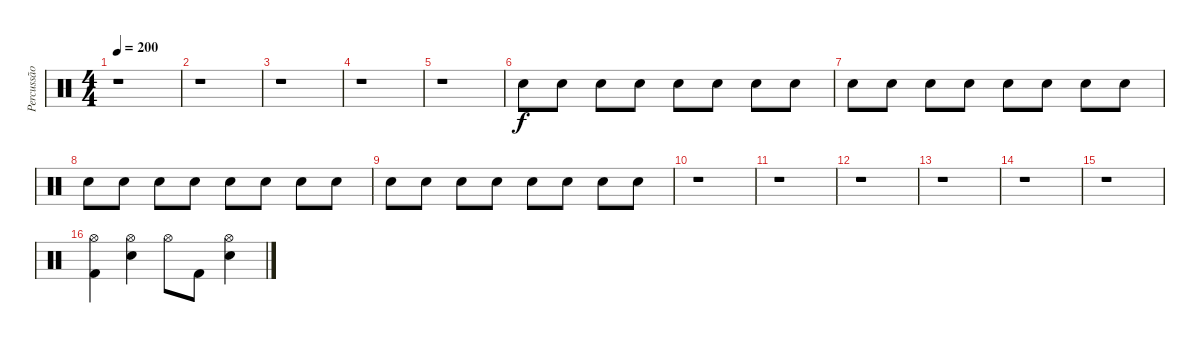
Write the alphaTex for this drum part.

\track ("Percussão" "Percussão") {instrument percussion}
\staff {score}
\articulation defaults
\ts (4 4)
\tempo 200
\clef neutral
\ks c
r.1{dy f} |
r.1 |
r.1 |
r.1 |
r.1 |
"Electric Snare (hit)".8 "Electric Snare (hit)".8 "Electric Snare (hit)".8 "Electric Snare (hit)".8 "Electric Snare (hit)".8 "Electric Snare (hit)".8 "Electric Snare (hit)".8 "Electric Snare (hit)".8 |
"Electric Snare (hit)".8 "Electric Snare (hit)".8 "Electric Snare (hit)".8 "Electric Snare (hit)".8 "Electric Snare (hit)".8 "Electric Snare (hit)".8 "Electric Snare (hit)".8 "Electric Snare (hit)".8 |
"Electric Snare (hit)".8 "Electric Snare (hit)".8 "Electric Snare (hit)".8 "Electric Snare (hit)".8 "Electric Snare (hit)".8 "Electric Snare (hit)".8 "Electric Snare (hit)".8 "Electric Snare (hit)".8 |
"Electric Snare (hit)".8 "Electric Snare (hit)".8 "Electric Snare (hit)".8 "Electric Snare (hit)".8 "Electric Snare (hit)".8 "Electric Snare (hit)".8 "Electric Snare (hit)".8 "Electric Snare (hit)".8 |
r.1 |
r.1 |
r.1 |
r.1 |
r.1 |
r.1 |
("Hi-Hat (open)" "Kick (hit) 2").4 ("Hi-Hat (open)" "Electric Snare (hit)").4 "Hi-Hat (open)".8 "Kick (hit) 2".8 ("Hi-Hat (open)" "Electric Snare (hit)").4
